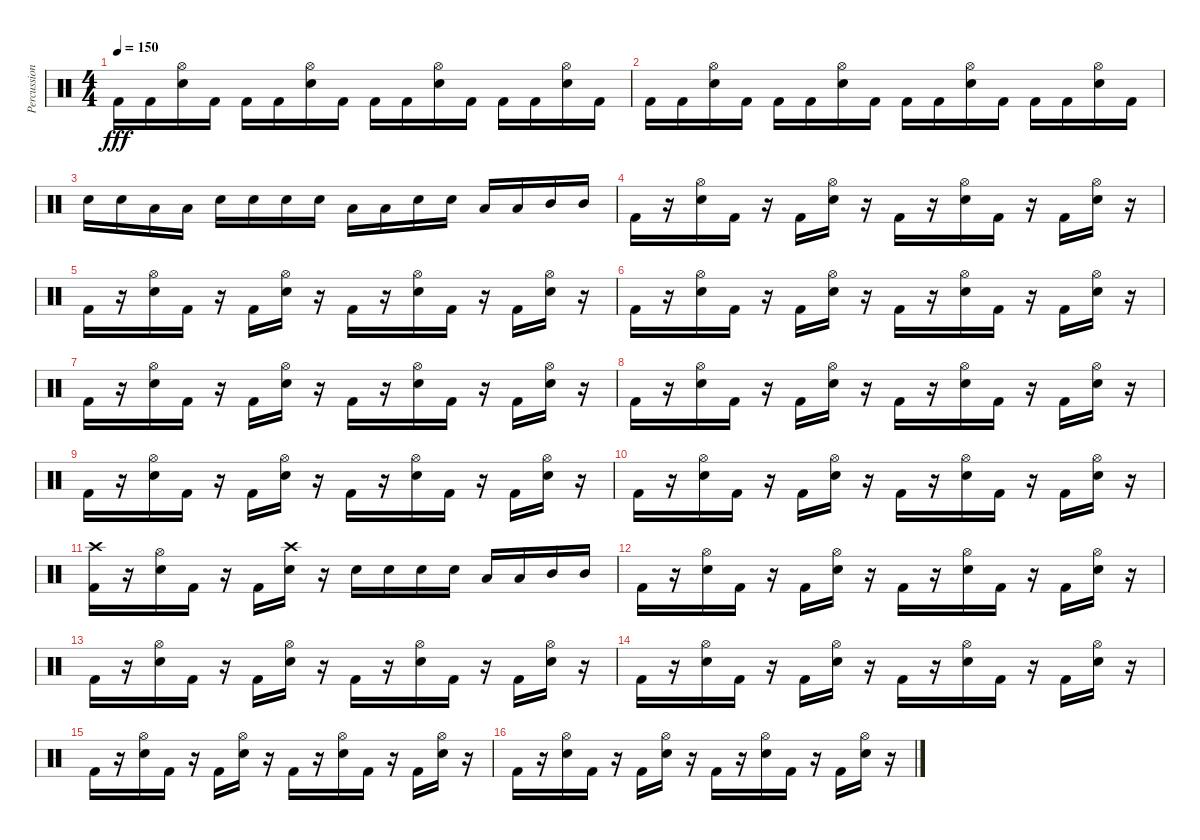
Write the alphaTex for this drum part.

\track ("Percussion" "Percussion") {instrument percussion}
\staff {score}
\articulation defaults
\ts (4 4)
\tempo 150
\clef neutral
\ks c "Kick (hit) 2".16{dy fff} "Kick (hit) 2".16
("Snare (hit) 2" "Hi-Hat (open)").16 "Kick (hit) 2".16 "Kick (hit) 2".16 "Kick (hit) 2".16 ("Snare (hit) 2" "Hi-Hat (open)").16 "Kick (hit) 2".16 "Kick (hit) 2".16 "Kick (hit) 2".16 ("Snare (hit) 2" "Hi-Hat (open)").16 "Kick (hit) 2".16 "Kick (hit) 2".16 "Kick (hit) 2".16 ("Snare (hit) 2" "Hi-Hat (open)").16 "Kick (hit) 2".16 |
"Kick (hit) 2".16 "Kick (hit) 2".16 ("Snare (hit) 2" "Hi-Hat (open)").16 "Kick (hit) 2".16 "Kick (hit) 2".16 "Kick (hit) 2".16 ("Snare (hit) 2" "Hi-Hat (open)").16 "Kick (hit) 2".16 "Kick (hit) 2".16 "Kick (hit) 2".16 ("Snare (hit) 2" "Hi-Hat (open)").16 "Kick (hit) 2".16 "Kick (hit) 2".16 "Kick (hit) 2".16 ("Snare (hit) 2" "Hi-Hat (open)").16 "Kick (hit) 2".16 |
"Snare (hit) 2".16 "Snare (hit) 2".16 "Low Tom (hit)".16 "Low Tom (hit)".16 "Snare (hit) 2".16 "Snare (hit) 2".16 "Snare (hit) 2".16 "Snare (hit) 2".16 "Low Tom (hit)".16 "Low Tom (hit)".16 "Snare (hit) 2".16 "Snare (hit) 2".16 "Low Tom (hit)".16 "Low Tom (hit)".16 "Mid Tom (hit)".16 "Mid Tom (hit)".16 |
"Kick (hit) 2".16 r.16 ("Snare (hit) 2" "Hi-Hat (open)").16 "Kick (hit) 2".16 r.16 "Kick (hit) 2".16 ("Snare (hit) 2" "Hi-Hat (open)").16 r.16 "Kick (hit) 2".16 r.16 ("Snare (hit) 2" "Hi-Hat (open)").16 "Kick (hit) 2".16 r.16 "Kick (hit) 2".16 ("Snare (hit) 2" "Hi-Hat (open)").16 r.16 |
"Kick (hit) 2".16 r.16 ("Snare (hit) 2" "Hi-Hat (open)").16 "Kick (hit) 2".16 r.16 "Kick (hit) 2".16 ("Snare (hit) 2" "Hi-Hat (open)").16 r.16 "Kick (hit) 2".16 r.16 ("Snare (hit) 2" "Hi-Hat (open)").16 "Kick (hit) 2".16 r.16 "Kick (hit) 2".16 ("Snare (hit) 2" "Hi-Hat (open)").16 r.16 |
"Kick (hit) 2".16 r.16 ("Snare (hit) 2" "Hi-Hat (open)").16 "Kick (hit) 2".16 r.16 "Kick (hit) 2".16 ("Snare (hit) 2" "Hi-Hat (open)").16 r.16 "Kick (hit) 2".16 r.16 ("Snare (hit) 2" "Hi-Hat (open)").16 "Kick (hit) 2".16 r.16 "Kick (hit) 2".16 ("Snare (hit) 2" "Hi-Hat (open)").16 r.16 |
"Kick (hit) 2".16 r.16 ("Snare (hit) 2" "Hi-Hat (open)").16 "Kick (hit) 2".16 r.16 "Kick (hit) 2".16 ("Snare (hit) 2" "Hi-Hat (open)").16 r.16 "Kick (hit) 2".16 r.16 ("Snare (hit) 2" "Hi-Hat (open)").16 "Kick (hit) 2".16 r.16 "Kick (hit) 2".16 ("Snare (hit) 2" "Hi-Hat (open)").16 r.16 |
"Kick (hit) 2".16 r.16 ("Snare (hit) 2" "Hi-Hat (open)").16 "Kick (hit) 2".16 r.16 "Kick (hit) 2".16 ("Snare (hit) 2" "Hi-Hat (open)").16 r.16 "Kick (hit) 2".16 r.16 ("Snare (hit) 2" "Hi-Hat (open)").16 "Kick (hit) 2".16 r.16 "Kick (hit) 2".16 ("Snare (hit) 2" "Hi-Hat (open)").16 r.16 |
"Kick (hit) 2".16 r.16 ("Snare (hit) 2" "Hi-Hat (open)").16 "Kick (hit) 2".16 r.16 "Kick (hit) 2".16 ("Snare (hit) 2" "Hi-Hat (open)").16 r.16 "Kick (hit) 2".16 r.16 ("Snare (hit) 2" "Hi-Hat (open)").16 "Kick (hit) 2".16 r.16 "Kick (hit) 2".16 ("Snare (hit) 2" "Hi-Hat (open)").16 r.16 |
"Kick (hit) 2".16 r.16 ("Snare (hit) 2" "Hi-Hat (open)").16 "Kick (hit) 2".16 r.16 "Kick (hit) 2".16 ("Snare (hit) 2" "Hi-Hat (open)").16 r.16 "Kick (hit) 2".16 r.16 ("Snare (hit) 2" "Hi-Hat (open)").16 "Kick (hit) 2".16 r.16 "Kick (hit) 2".16 ("Snare (hit) 2" "Hi-Hat (open)").16 r.16 |
("Kick (hit) 2" "Crash high (hit)").16 r.16 ("Snare (hit) 2" "Hi-Hat (open)").16 "Kick (hit) 2".16 r.16 "Kick (hit) 2".16 ("Snare (hit) 2" "Crash high (hit)").16 r.16 "Snare (hit) 2".16 "Snare (hit) 2".16 "Snare (hit) 2".16 "Snare (hit) 2".16 "Low Tom (hit)".16 "Low Tom (hit)".16 "Mid Tom (hit)".16 "Mid Tom (hit)".16 |
"Kick (hit) 2".16 r.16 ("Snare (hit) 2" "Hi-Hat (open)").16 "Kick (hit) 2".16 r.16 "Kick (hit) 2".16 ("Snare (hit) 2" "Hi-Hat (open)").16 r.16 "Kick (hit) 2".16 r.16 ("Snare (hit) 2" "Hi-Hat (open)").16 "Kick (hit) 2".16 r.16 "Kick (hit) 2".16 ("Snare (hit) 2" "Hi-Hat (open)").16 r.16 |
"Kick (hit) 2".16 r.16 ("Snare (hit) 2" "Hi-Hat (open)").16 "Kick (hit) 2".16 r.16 "Kick (hit) 2".16 ("Snare (hit) 2" "Hi-Hat (open)").16 r.16 "Kick (hit) 2".16 r.16 ("Snare (hit) 2" "Hi-Hat (open)").16 "Kick (hit) 2".16 r.16 "Kick (hit) 2".16 ("Snare (hit) 2" "Hi-Hat (open)").16 r.16 |
"Kick (hit) 2".16 r.16 ("Snare (hit) 2" "Hi-Hat (open)").16 "Kick (hit) 2".16 r.16 "Kick (hit) 2".16 ("Snare (hit) 2" "Hi-Hat (open)").16 r.16 "Kick (hit) 2".16 r.16 ("Snare (hit) 2" "Hi-Hat (open)").16 "Kick (hit) 2".16 r.16 "Kick (hit) 2".16 ("Snare (hit) 2" "Hi-Hat (open)").16 r.16 |
"Kick (hit) 2".16 r.16 ("Snare (hit) 2" "Hi-Hat (open)").16 "Kick (hit) 2".16 r.16 "Kick (hit) 2".16 ("Snare (hit) 2" "Hi-Hat (open)").16 r.16 "Kick (hit) 2".16 r.16 ("Snare (hit) 2" "Hi-Hat (open)").16 "Kick (hit) 2".16 r.16 "Kick (hit) 2".16 ("Snare (hit) 2" "Hi-Hat (open)").16 r.16 |
"Kick (hit) 2".16 r.16 ("Snare (hit) 2" "Hi-Hat (open)").16 "Kick (hit) 2".16 r.16 "Kick (hit) 2".16 ("Snare (hit) 2" "Hi-Hat (open)").16 r.16 "Kick (hit) 2".16 r.16 ("Snare (hit) 2" "Hi-Hat (open)").16 "Kick (hit) 2".16 r.16 "Kick (hit) 2".16 ("Snare (hit) 2" "Hi-Hat (open)").16 r.16
